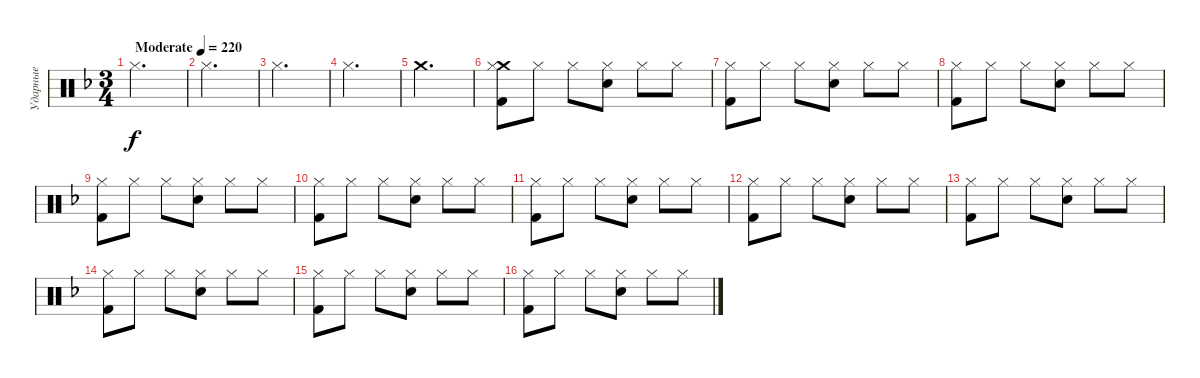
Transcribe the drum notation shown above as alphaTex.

\track ("Ударные" "Ударные") {instrument percussion}
\staff {score}
\articulation defaults
\ts (3 4)
\tempo (220 "Moderate")
\clef neutral
\ks f "Hi-Hat (closed)".2{d dy f}
|
"Hi-Hat (closed)".2{d} |
"Hi-Hat (closed)".2{d} |
"Hi-Hat (closed)".2{d} |
"Crash medium (hit)".2{d} |
("Crash medium (hit)" "Hi-Hat (closed)" "Kick (hit) 2").8 "Hi-Hat (closed)".8 "Hi-Hat (closed)".8 ("Hi-Hat (closed)" "Electric Snare (hit)").8 "Hi-Hat (closed)".8 "Hi-Hat (closed)".8 |
("Hi-Hat (closed)" "Kick (hit) 2").8 "Hi-Hat (closed)".8 "Hi-Hat (closed)".8 ("Hi-Hat (closed)" "Electric Snare (hit)").8 "Hi-Hat (closed)".8 "Hi-Hat (closed)".8 |
("Hi-Hat (closed)" "Kick (hit) 2").8 "Hi-Hat (closed)".8 "Hi-Hat (closed)".8 ("Hi-Hat (closed)" "Electric Snare (hit)").8 "Hi-Hat (closed)".8 "Hi-Hat (closed)".8 |
("Hi-Hat (closed)" "Kick (hit) 2").8 "Hi-Hat (closed)".8 "Hi-Hat (closed)".8 ("Hi-Hat (closed)" "Electric Snare (hit)").8 "Hi-Hat (closed)".8 "Hi-Hat (closed)".8 |
("Hi-Hat (closed)" "Kick (hit) 2").8 "Hi-Hat (closed)".8 "Hi-Hat (closed)".8 ("Hi-Hat (closed)" "Electric Snare (hit)").8 "Hi-Hat (closed)".8 "Hi-Hat (closed)".8 |
("Hi-Hat (closed)" "Kick (hit) 2").8 "Hi-Hat (closed)".8 "Hi-Hat (closed)".8 ("Hi-Hat (closed)" "Electric Snare (hit)").8 "Hi-Hat (closed)".8 "Hi-Hat (closed)".8 |
("Hi-Hat (closed)" "Kick (hit) 2").8 "Hi-Hat (closed)".8 "Hi-Hat (closed)".8 ("Hi-Hat (closed)" "Electric Snare (hit)").8 "Hi-Hat (closed)".8 "Hi-Hat (closed)".8 |
("Hi-Hat (closed)" "Kick (hit) 2").8 "Hi-Hat (closed)".8 "Hi-Hat (closed)".8 ("Hi-Hat (closed)" "Electric Snare (hit)").8 "Hi-Hat (closed)".8 "Hi-Hat (closed)".8 |
("Hi-Hat (closed)" "Kick (hit) 2").8 "Hi-Hat (closed)".8 "Hi-Hat (closed)".8 ("Hi-Hat (closed)" "Electric Snare (hit)").8 "Hi-Hat (closed)".8 "Hi-Hat (closed)".8 |
("Hi-Hat (closed)" "Kick (hit) 2").8 "Hi-Hat (closed)".8 "Hi-Hat (closed)".8 ("Hi-Hat (closed)" "Electric Snare (hit)").8 "Hi-Hat (closed)".8 "Hi-Hat (closed)".8 |
("Hi-Hat (closed)" "Kick (hit) 2").8 "Hi-Hat (closed)".8 "Hi-Hat (closed)".8 ("Hi-Hat (closed)" "Electric Snare (hit)").8 "Hi-Hat (closed)".8 "Hi-Hat (closed)".8
